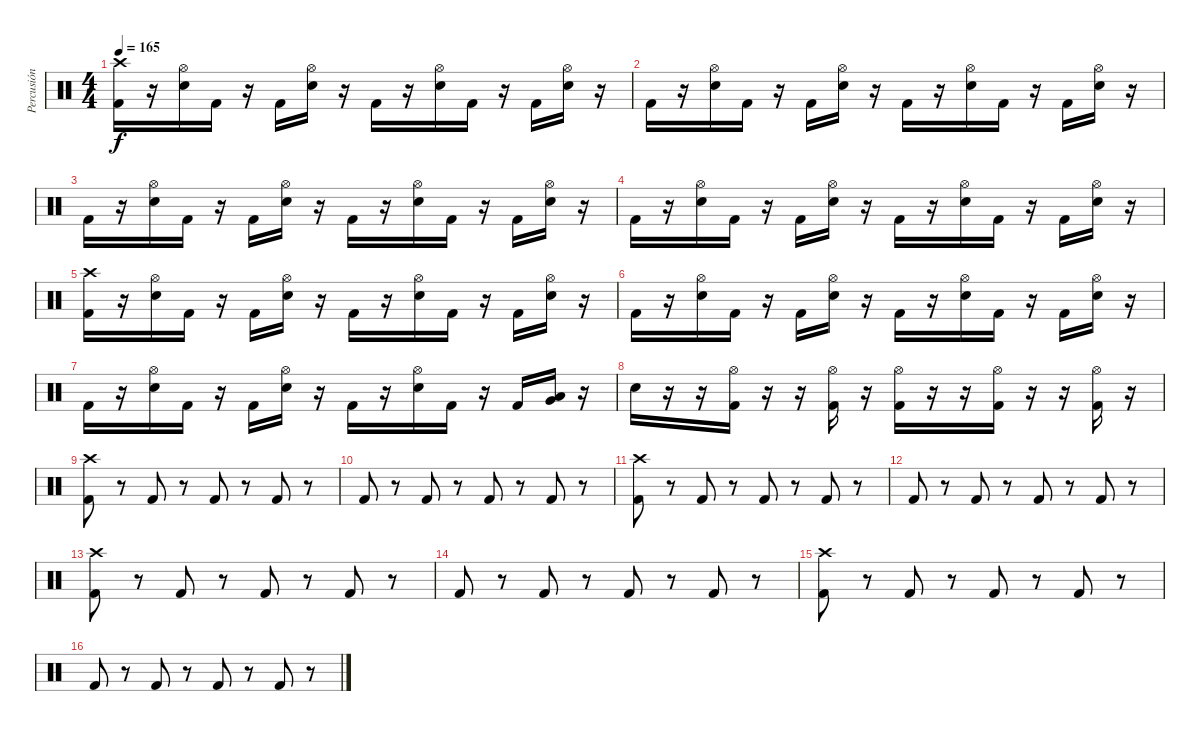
\track ("Percusión" "Percusión") {instrument percussion}
\staff {score}
\articulation defaults
\ts (4 4)
\tempo 165
\clef neutral
\ks c
("Crash high (hit)" "Kick (hit) 2").16{dy f} r.16 ("Hi-Hat (open)" "Electric Snare (hit)").16 "Kick (hit) 2".16 r.16 "Kick (hit) 2".16 ("Hi-Hat (open)" "Electric Snare (hit)").16 r.16 "Kick (hit) 2".16 r.16 ("Hi-Hat (open)" "Electric Snare (hit)").16 "Kick (hit) 2".16 r.16 "Kick (hit) 2".16 ("Hi-Hat (open)" "Electric Snare (hit)").16 r.16 |
"Kick (hit) 2".16 r.16 ("Hi-Hat (open)" "Electric Snare (hit)").16 "Kick (hit) 2".16 r.16 "Kick (hit) 2".16 ("Hi-Hat (open)" "Electric Snare (hit)").16 r.16 "Kick (hit) 2".16 r.16 ("Hi-Hat (open)" "Electric Snare (hit)").16 "Kick (hit) 2".16 r.16 "Kick (hit) 2".16 ("Hi-Hat (open)" "Electric Snare (hit)").16 r.16 |
"Kick (hit) 2".16 r.16 ("Hi-Hat (open)" "Electric Snare (hit)").16 "Kick (hit) 2".16 r.16 "Kick (hit) 2".16 ("Hi-Hat (open)" "Electric Snare (hit)").16 r.16 "Kick (hit) 2".16 r.16 ("Hi-Hat (open)" "Electric Snare (hit)").16 "Kick (hit) 2".16 r.16 "Kick (hit) 2".16 ("Hi-Hat (open)" "Electric Snare (hit)").16 r.16 |
"Kick (hit) 2".16 r.16 ("Hi-Hat (open)" "Electric Snare (hit)").16 "Kick (hit) 2".16 r.16 "Kick (hit) 2".16 ("Hi-Hat (open)" "Electric Snare (hit)").16 r.16 "Kick (hit) 2".16 r.16 ("Hi-Hat (open)" "Electric Snare (hit)").16 "Kick (hit) 2".16 r.16 "Kick (hit) 2".16 ("Hi-Hat (open)" "Electric Snare (hit)").16 r.16 |
("Crash high (hit)" "Kick (hit) 2").16 r.16 ("Hi-Hat (open)" "Electric Snare (hit)").16 "Kick (hit) 2".16 r.16 "Kick (hit) 2".16 ("Hi-Hat (open)" "Electric Snare (hit)").16 r.16 "Kick (hit) 2".16 r.16 ("Hi-Hat (open)" "Electric Snare (hit)").16 "Kick (hit) 2".16 r.16 "Kick (hit) 2".16 ("Hi-Hat (open)" "Electric Snare (hit)").16 r.16 |
"Kick (hit) 2".16 r.16 ("Hi-Hat (open)" "Electric Snare (hit)").16 "Kick (hit) 2".16 r.16 "Kick (hit) 2".16 ("Hi-Hat (open)" "Electric Snare (hit)").16 r.16 "Kick (hit) 2".16 r.16 ("Hi-Hat (open)" "Electric Snare (hit)").16 "Kick (hit) 2".16 r.16 "Kick (hit) 2".16 ("Hi-Hat (open)" "Electric Snare (hit)").16 r.16 |
"Kick (hit) 2".16 r.16 ("Hi-Hat (open)" "Electric Snare (hit)").16 "Kick (hit) 2".16 r.16 "Kick (hit) 2".16 ("Hi-Hat (open)" "Electric Snare (hit)").16 r.16 "Kick (hit) 2".16 r.16 ("Hi-Hat (open)" "Electric Snare (hit)").16 "Kick (hit) 2".16 r.16 "Kick (hit) 2".16 ("Very Low Tom (hit)" "Low Floor Tom (hit)").16 r.16 |
"Electric Snare (hit)".16 r.16 r.16 ("Hi-Hat (open)" "Kick (hit) 2").16 r.16 r.16 ("Hi-Hat (open)" "Kick (hit) 2").16 r.16 ("Hi-Hat (open)" "Kick (hit) 2").16 r.16 r.16 ("Hi-Hat (open)" "Kick (hit) 2").16 r.16 r.16 ("Hi-Hat (open)" "Kick (hit) 2").16 r.16 |
("Crash high (hit)" "Kick (hit) 2").8 r.8 "Kick (hit) 2".8 r.8 "Kick (hit) 2".8 r.8 "Kick (hit) 2".8 r.8 |
"Kick (hit) 2".8 r.8 "Kick (hit) 2".8 r.8 "Kick (hit) 2".8 r.8 "Kick (hit) 2".8 r.8 |
("Crash high (hit)" "Kick (hit) 2").8 r.8 "Kick (hit) 2".8 r.8 "Kick (hit) 2".8 r.8 "Kick (hit) 2".8 r.8 |
"Kick (hit) 2".8 r.8 "Kick (hit) 2".8 r.8 "Kick (hit) 2".8 r.8 "Kick (hit) 2".8 r.8 |
("Crash high (hit)" "Kick (hit) 2").8 r.8 "Kick (hit) 2".8 r.8 "Kick (hit) 2".8 r.8 "Kick (hit) 2".8 r.8 |
"Kick (hit) 2".8 r.8 "Kick (hit) 2".8 r.8 "Kick (hit) 2".8 r.8 "Kick (hit) 2".8 r.8 |
("Crash high (hit)" "Kick (hit) 2").8 r.8 "Kick (hit) 2".8 r.8 "Kick (hit) 2".8 r.8 "Kick (hit) 2".8 r.8 |
"Kick (hit) 2".8 r.8 "Kick (hit) 2".8 r.8 "Kick (hit) 2".8 r.8 "Kick (hit) 2".8 r.8
